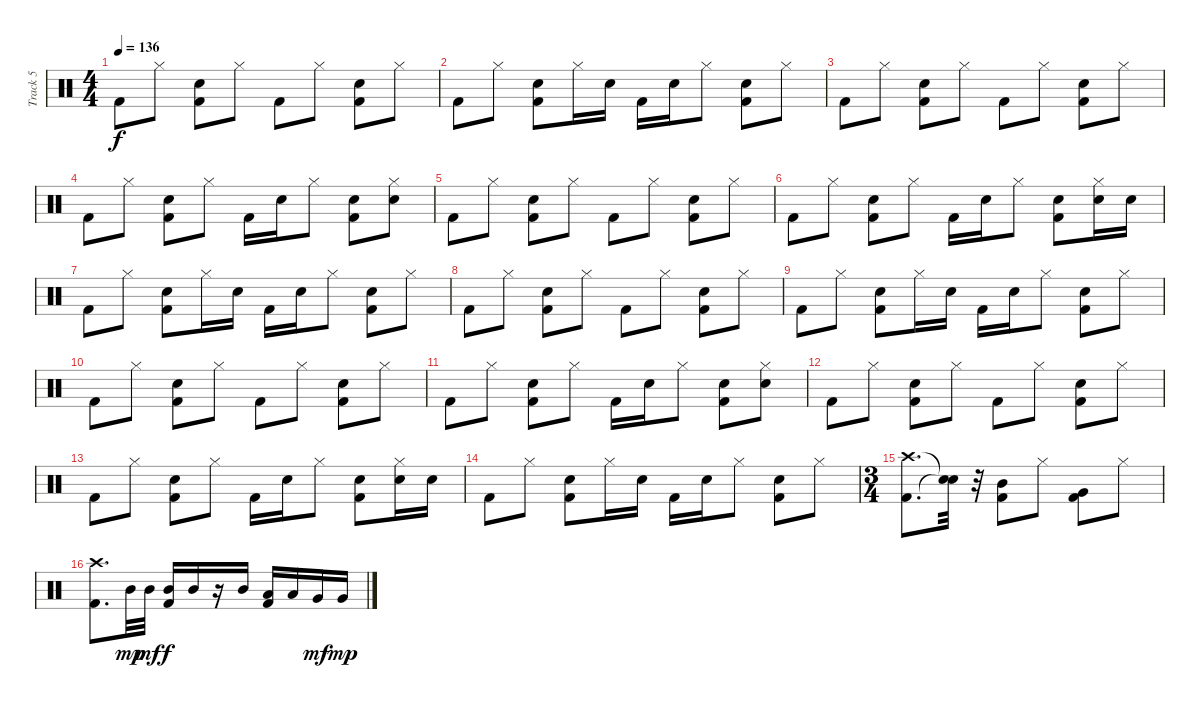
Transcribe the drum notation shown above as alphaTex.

\track ("Track 5" "Track 5") {instrument percussion}
\staff {score}
\articulation defaults
\ts (4 4)
\tempo 136
\clef neutral
\ks c "Kick (hit) 2".8{dy f} "Hi-Hat (closed)".8
("Kick (hit) 2" "Hand Clap (hit)").8 "Hi-Hat (closed)".8 "Kick (hit) 2".8 "Hi-Hat (closed)".8 ("Kick (hit) 2" "Hand Clap (hit)").8 "Hi-Hat (closed)".8 |
"Kick (hit) 2".8 "Hi-Hat (closed)".8 ("Kick (hit) 2" "Hand Clap (hit)").8 "Hi-Hat (closed)".16 "Hand Clap (hit)".16 "Kick (hit) 2".16 "Hand Clap (hit)".16 "Hi-Hat (closed)".8 ("Kick (hit) 2" "Hand Clap (hit)").8 "Hi-Hat (closed)".8 |
"Kick (hit) 2".8 "Hi-Hat (closed)".8 ("Kick (hit) 2" "Hand Clap (hit)").8 "Hi-Hat (closed)".8 "Kick (hit) 2".8 "Hi-Hat (closed)".8 ("Kick (hit) 2" "Hand Clap (hit)").8 "Hi-Hat (closed)".8 |
"Kick (hit) 2".8 "Hi-Hat (closed)".8 ("Kick (hit) 2" "Hand Clap (hit)").8 "Hi-Hat (closed)".8 "Kick (hit) 2".16 "Hand Clap (hit)".16 "Hi-Hat (closed)".8 ("Kick (hit) 2" "Hand Clap (hit)").8 ("Hand Clap (hit)" "Hi-Hat (closed)").8 |
"Kick (hit) 2".8 "Hi-Hat (closed)".8 ("Kick (hit) 2" "Hand Clap (hit)").8 "Hi-Hat (closed)".8 "Kick (hit) 2".8 "Hi-Hat (closed)".8 ("Kick (hit) 2" "Hand Clap (hit)").8 "Hi-Hat (closed)".8 |
"Kick (hit) 2".8 "Hi-Hat (closed)".8 ("Kick (hit) 2" "Hand Clap (hit)").8 "Hi-Hat (closed)".8 "Kick (hit) 2".16 "Hand Clap (hit)".16 "Hi-Hat (closed)".8 ("Kick (hit) 2" "Hand Clap (hit)").8 ("Hand Clap (hit)" "Hi-Hat (closed)").16 "Hand Clap (hit)".16 |
"Kick (hit) 2".8 "Hi-Hat (closed)".8 ("Kick (hit) 2" "Hand Clap (hit)").8 "Hi-Hat (closed)".16 "Hand Clap (hit)".16 "Kick (hit) 2".16 "Hand Clap (hit)".16 "Hi-Hat (closed)".8 ("Kick (hit) 2" "Hand Clap (hit)").8 "Hi-Hat (closed)".8 |
"Kick (hit) 2".8 "Hi-Hat (closed)".8 ("Kick (hit) 2" "Hand Clap (hit)").8 "Hi-Hat (closed)".8 "Kick (hit) 2".8 "Hi-Hat (closed)".8 ("Kick (hit) 2" "Hand Clap (hit)").8 "Hi-Hat (closed)".8 |
"Kick (hit) 2".8 "Hi-Hat (closed)".8 ("Kick (hit) 2" "Hand Clap (hit)").8 "Hi-Hat (closed)".16 "Hand Clap (hit)".16 "Kick (hit) 2".16 "Hand Clap (hit)".16 "Hi-Hat (closed)".8 ("Kick (hit) 2" "Hand Clap (hit)").8 "Hi-Hat (closed)".8 |
"Kick (hit) 2".8 "Hi-Hat (closed)".8 ("Kick (hit) 2" "Hand Clap (hit)").8 "Hi-Hat (closed)".8 "Kick (hit) 2".8 "Hi-Hat (closed)".8 ("Kick (hit) 2" "Hand Clap (hit)").8 "Hi-Hat (closed)".8 |
"Kick (hit) 2".8 "Hi-Hat (closed)".8 ("Kick (hit) 2" "Hand Clap (hit)").8 "Hi-Hat (closed)".8 "Kick (hit) 2".16 "Hand Clap (hit)".16 "Hi-Hat (closed)".8 ("Kick (hit) 2" "Hand Clap (hit)").8 ("Hand Clap (hit)" "Hi-Hat (closed)").8 |
"Kick (hit) 2".8 "Hi-Hat (closed)".8 ("Kick (hit) 2" "Hand Clap (hit)").8 "Hi-Hat (closed)".8 "Kick (hit) 2".8 "Hi-Hat (closed)".8 ("Kick (hit) 2" "Hand Clap (hit)").8 "Hi-Hat (closed)".8 |
"Kick (hit) 2".8 "Hi-Hat (closed)".8 ("Kick (hit) 2" "Hand Clap (hit)").8 "Hi-Hat (closed)".8 "Kick (hit) 2".16 "Hand Clap (hit)".16 "Hi-Hat (closed)".8 ("Kick (hit) 2" "Hand Clap (hit)").8 ("Hand Clap (hit)" "Hi-Hat (closed)").16 "Hand Clap (hit)".16 |
"Kick (hit) 2".8 "Hi-Hat (closed)".8 ("Kick (hit) 2" "Hand Clap (hit)").8 "Hi-Hat (closed)".16 "Hand Clap (hit)".16 "Kick (hit) 2".16 "Hand Clap (hit)".16 "Hi-Hat (closed)".8 ("Kick (hit) 2" "Hand Clap (hit)").8 "Hi-Hat (closed)".8 |
\ts (3 4)
("Kick (hit) 2" "Crash high (hit)").8{d} ("Snare (hit)"{t} "Snare (hit)"{t}).32 r.32 ("Kick (hit) 2" "Mid Tom (hit)").8 "Hi-Hat (closed)".8 ("Kick (hit) 2" "Very Low Tom (hit)").8 "Hi-Hat (closed)".8 |
("Kick (hit) 2" "Crash high (hit)").8{d} "Mid Tom (hit)".32{dy mp} "Mid Tom (hit)".32{dy mf} ("Kick (hit) 2" "Mid Tom (hit)").16{dy f} "Mid Tom (hit)".16 r.16 "Mid Tom (hit)".16 ("Kick (hit) 2" "Low Tom (hit)").16 "Low Tom (hit)".16 "Very Low Tom (hit)".16{dy mf} "Very Low Tom (hit)".16{dy mp}
